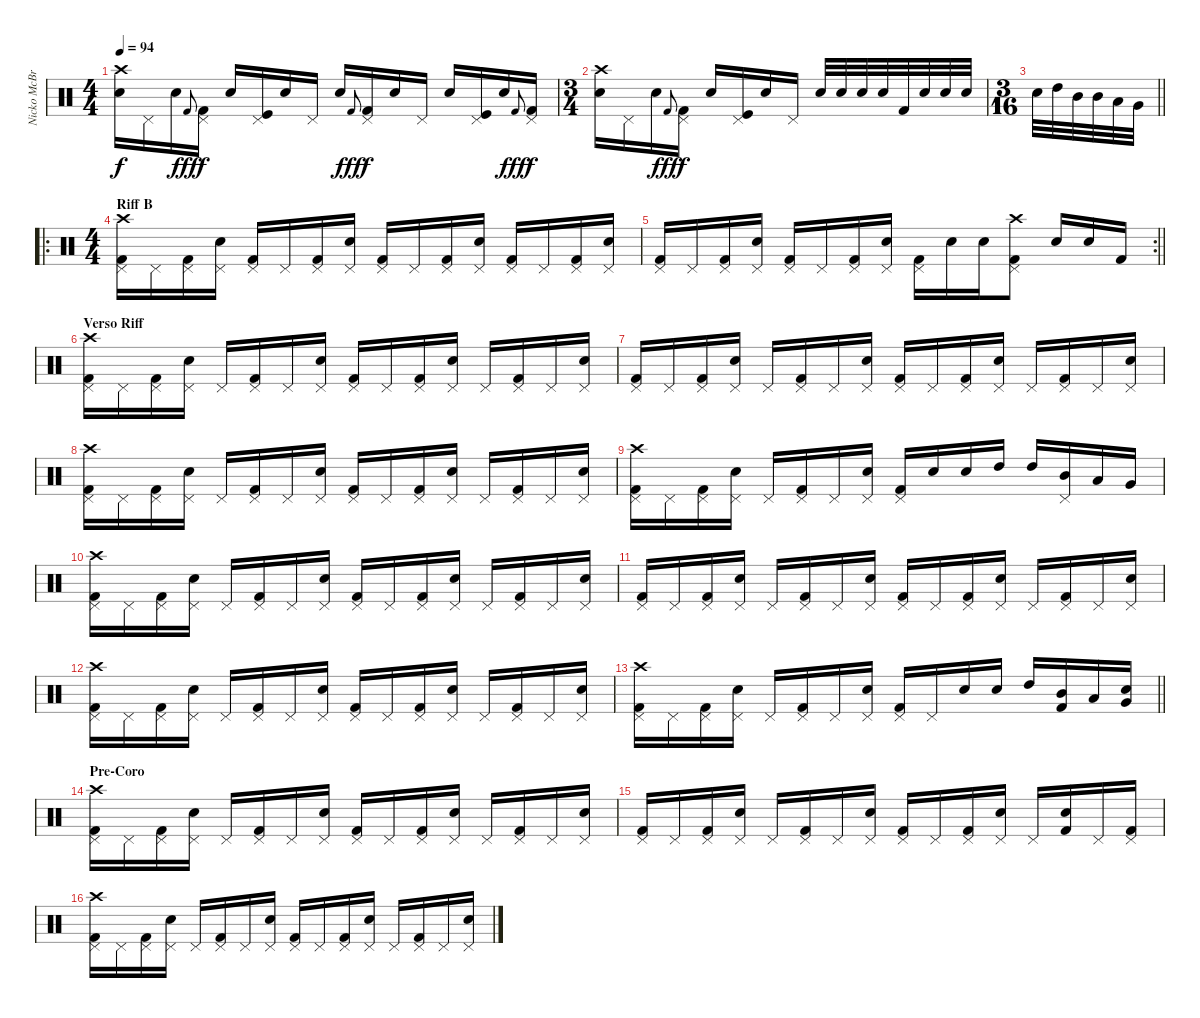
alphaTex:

\track ("Nicko McBrain" "Nicko McBr") {instrument percussion}
\staff {score}
\articulation defaults
\ts (4 4)
\tempo 94
\clef neutral
\ks c
("Snare (hit) 2" "Crash high (hit)").16{dy f} "Pedal Hi-Hat (hit)".16 "Snare (hit) 2".16 "Kick (hit) 2".8{gr onbeat dy fff} ("Pedal Hi-Hat (hit)" "Kick (hit) 2").16{dy f} "Snare (hit) 2".16 ("Kick (hit)" "Pedal Hi-Hat (hit)").16 "Snare (hit) 2".16 "Pedal Hi-Hat (hit)".16 "Snare (hit) 2".16 "Kick (hit) 2".8{gr onbeat dy fff} ("Pedal Hi-Hat (hit)" "Kick (hit) 2").16{dy f} "Snare (hit) 2".16 "Pedal Hi-Hat (hit)".16 "Snare (hit) 2".16 ("Kick (hit)" "Pedal Hi-Hat (hit)").16 "Snare (hit) 2".16 "Kick (hit) 2".8{gr onbeat dy fff} ("Pedal Hi-Hat (hit)" "Kick (hit) 2").16{dy f} |
\ts (3 4)
("Snare (hit) 2" "Crash high (hit)").16 "Pedal Hi-Hat (hit)".16 "Snare (hit) 2".16 "Kick (hit) 2".8{gr onbeat dy fff} ("Pedal Hi-Hat (hit)" "Kick (hit) 2").16{dy f} "Snare (hit) 2".16 ("Kick (hit)" "Pedal Hi-Hat (hit)").16 "Snare (hit) 2".16 "Pedal Hi-Hat (hit)".16 "Snare (hit) 2".32 "Snare (hit) 2".32 "Snare (hit) 2".32 "Snare (hit) 2".32 "Kick (hit) 2".32 "Snare (hit) 2".32 "Snare (hit) 2".32 "Snare (hit) 2".32 |
\ts (3 16)
\barLineRight lightlight "Snare (hit) 2".32 "High Tom (hit)".32 "Mid Tom (hit)".32 "Mid Tom (hit)".32 "Low Tom (hit)".32 "Very Low Tom (hit)".32
|
\ro
\ts (4 4)
\section ("" "Riff B")
("Kick (hit) 2" "Pedal Hi-Hat (hit)" "Crash high (hit)").16 "Pedal Hi-Hat (hit)".16 ("Kick (hit) 2" "Pedal Hi-Hat (hit)").16 ("Snare (hit) 2" "Pedal Hi-Hat (hit)").16 ("Kick (hit) 2" "Pedal Hi-Hat (hit)").16 "Pedal Hi-Hat (hit)".16 ("Kick (hit) 2" "Pedal Hi-Hat (hit)").16 ("Snare (hit) 2" "Pedal Hi-Hat (hit)").16 ("Kick (hit) 2" "Pedal Hi-Hat (hit)").16 "Pedal Hi-Hat (hit)".16 ("Kick (hit) 2" "Pedal Hi-Hat (hit)").16 ("Snare (hit) 2" "Pedal Hi-Hat (hit)").16 ("Kick (hit) 2" "Pedal Hi-Hat (hit)").16 "Pedal Hi-Hat (hit)".16 ("Kick (hit) 2" "Pedal Hi-Hat (hit)").16 ("Snare (hit) 2" "Pedal Hi-Hat (hit)").16 |
\rc 2
\barLineRight lightlight
("Kick (hit) 2" "Pedal Hi-Hat (hit)").16 "Pedal Hi-Hat (hit)".16 ("Kick (hit) 2" "Pedal Hi-Hat (hit)").16 ("Snare (hit) 2" "Pedal Hi-Hat (hit)").16 ("Kick (hit) 2" "Pedal Hi-Hat (hit)").16 "Pedal Hi-Hat (hit)".16 ("Kick (hit) 2" "Pedal Hi-Hat (hit)").16 ("Snare (hit) 2" "Pedal Hi-Hat (hit)").16 ("Kick (hit) 2" "Pedal Hi-Hat (hit)").16 "Snare (hit) 2".16 "Snare (hit) 2".16 ("Kick (hit) 2" "Pedal Hi-Hat (hit)" "Crash high (hit)").8 "Snare (hit) 2".16 "Snare (hit) 2".16 "Kick (hit) 2".16 |
\section ("" "Verso Riff")
("Kick (hit) 2" "Pedal Hi-Hat (hit)" "Crash high (hit)").16 "Pedal Hi-Hat (hit)".16 ("Kick (hit) 2" "Pedal Hi-Hat (hit)").16 ("Snare (hit) 2" "Pedal Hi-Hat (hit)").16 "Pedal Hi-Hat (hit)".16 ("Kick (hit) 2" "Pedal Hi-Hat (hit)").16 "Pedal Hi-Hat (hit)".16 ("Snare (hit) 2" "Pedal Hi-Hat (hit)").16 ("Kick (hit) 2" "Pedal Hi-Hat (hit)").16 "Pedal Hi-Hat (hit)".16 ("Kick (hit) 2" "Pedal Hi-Hat (hit)").16 ("Snare (hit) 2" "Pedal Hi-Hat (hit)").16 "Pedal Hi-Hat (hit)".16 ("Kick (hit) 2" "Pedal Hi-Hat (hit)").16 "Pedal Hi-Hat (hit)".16 ("Snare (hit) 2" "Pedal Hi-Hat (hit)").16 |
("Kick (hit) 2" "Pedal Hi-Hat (hit)").16 "Pedal Hi-Hat (hit)".16 ("Kick (hit) 2" "Pedal Hi-Hat (hit)").16 ("Snare (hit) 2" "Pedal Hi-Hat (hit)").16 "Pedal Hi-Hat (hit)".16 ("Kick (hit) 2" "Pedal Hi-Hat (hit)").16 "Pedal Hi-Hat (hit)".16 ("Snare (hit) 2" "Pedal Hi-Hat (hit)").16 ("Kick (hit) 2" "Pedal Hi-Hat (hit)").16 "Pedal Hi-Hat (hit)".16 ("Kick (hit) 2" "Pedal Hi-Hat (hit)").16 ("Snare (hit) 2" "Pedal Hi-Hat (hit)").16 "Pedal Hi-Hat (hit)".16 ("Kick (hit) 2" "Pedal Hi-Hat (hit)").16 "Pedal Hi-Hat (hit)".16 ("Snare (hit) 2" "Pedal Hi-Hat (hit)").16 |
("Kick (hit) 2" "Pedal Hi-Hat (hit)" "Crash high (hit)").16 "Pedal Hi-Hat (hit)".16 ("Kick (hit) 2" "Pedal Hi-Hat (hit)").16 ("Snare (hit) 2" "Pedal Hi-Hat (hit)").16 "Pedal Hi-Hat (hit)".16 ("Kick (hit) 2" "Pedal Hi-Hat (hit)").16 "Pedal Hi-Hat (hit)".16 ("Snare (hit) 2" "Pedal Hi-Hat (hit)").16 ("Kick (hit) 2" "Pedal Hi-Hat (hit)").16 "Pedal Hi-Hat (hit)".16 ("Kick (hit) 2" "Pedal Hi-Hat (hit)").16 ("Snare (hit) 2" "Pedal Hi-Hat (hit)").16 "Pedal Hi-Hat (hit)".16 ("Kick (hit) 2" "Pedal Hi-Hat (hit)").16 "Pedal Hi-Hat (hit)".16 ("Snare (hit) 2" "Pedal Hi-Hat (hit)").16 |
("Kick (hit) 2" "Pedal Hi-Hat (hit)" "Crash high (hit)").16 "Pedal Hi-Hat (hit)".16 ("Kick (hit) 2" "Pedal Hi-Hat (hit)").16 ("Snare (hit) 2" "Pedal Hi-Hat (hit)").16 "Pedal Hi-Hat (hit)".16 ("Kick (hit) 2" "Pedal Hi-Hat (hit)").16 "Pedal Hi-Hat (hit)".16 ("Snare (hit) 2" "Pedal Hi-Hat (hit)").16 ("Kick (hit) 2" "Pedal Hi-Hat (hit)").16 "Snare (hit) 2".16 "Snare (hit) 2".16 "High Tom (hit)".16 "High Tom (hit)".16 ("Pedal Hi-Hat (hit)" "Mid Tom (hit)").16 "Low Tom (hit)".16 "Very Low Tom (hit)".16 |
("Kick (hit) 2" "Pedal Hi-Hat (hit)" "Crash high (hit)").16 "Pedal Hi-Hat (hit)".16 ("Kick (hit) 2" "Pedal Hi-Hat (hit)").16 ("Snare (hit) 2" "Pedal Hi-Hat (hit)").16 "Pedal Hi-Hat (hit)".16 ("Kick (hit) 2" "Pedal Hi-Hat (hit)").16 "Pedal Hi-Hat (hit)".16 ("Snare (hit) 2" "Pedal Hi-Hat (hit)").16 ("Kick (hit) 2" "Pedal Hi-Hat (hit)").16 "Pedal Hi-Hat (hit)".16 ("Kick (hit) 2" "Pedal Hi-Hat (hit)").16 ("Snare (hit) 2" "Pedal Hi-Hat (hit)").16 "Pedal Hi-Hat (hit)".16 ("Kick (hit) 2" "Pedal Hi-Hat (hit)").16 "Pedal Hi-Hat (hit)".16 ("Snare (hit) 2" "Pedal Hi-Hat (hit)").16 |
("Kick (hit) 2" "Pedal Hi-Hat (hit)").16 "Pedal Hi-Hat (hit)".16 ("Kick (hit) 2" "Pedal Hi-Hat (hit)").16 ("Snare (hit) 2" "Pedal Hi-Hat (hit)").16 "Pedal Hi-Hat (hit)".16 ("Kick (hit) 2" "Pedal Hi-Hat (hit)").16 "Pedal Hi-Hat (hit)".16 ("Snare (hit) 2" "Pedal Hi-Hat (hit)").16 ("Kick (hit) 2" "Pedal Hi-Hat (hit)").16 "Pedal Hi-Hat (hit)".16 ("Kick (hit) 2" "Pedal Hi-Hat (hit)").16 ("Snare (hit) 2" "Pedal Hi-Hat (hit)").16 "Pedal Hi-Hat (hit)".16 ("Kick (hit) 2" "Pedal Hi-Hat (hit)").16 "Pedal Hi-Hat (hit)".16 ("Snare (hit) 2" "Pedal Hi-Hat (hit)").16 |
("Kick (hit) 2" "Pedal Hi-Hat (hit)" "Crash high (hit)").16 "Pedal Hi-Hat (hit)".16 ("Kick (hit) 2" "Pedal Hi-Hat (hit)").16 ("Snare (hit) 2" "Pedal Hi-Hat (hit)").16 "Pedal Hi-Hat (hit)".16 ("Kick (hit) 2" "Pedal Hi-Hat (hit)").16 "Pedal Hi-Hat (hit)".16 ("Snare (hit) 2" "Pedal Hi-Hat (hit)").16 ("Kick (hit) 2" "Pedal Hi-Hat (hit)").16 "Pedal Hi-Hat (hit)".16 ("Kick (hit) 2" "Pedal Hi-Hat (hit)").16 ("Snare (hit) 2" "Pedal Hi-Hat (hit)").16 "Pedal Hi-Hat (hit)".16 ("Kick (hit) 2" "Pedal Hi-Hat (hit)").16 "Pedal Hi-Hat (hit)".16 ("Snare (hit) 2" "Pedal Hi-Hat (hit)").16 |
\barLineRight lightlight
("Kick (hit) 2" "Pedal Hi-Hat (hit)" "Crash high (hit)").16 "Pedal Hi-Hat (hit)".16 ("Kick (hit) 2" "Pedal Hi-Hat (hit)").16 ("Snare (hit) 2" "Pedal Hi-Hat (hit)").16 "Pedal Hi-Hat (hit)".16 ("Kick (hit) 2" "Pedal Hi-Hat (hit)").16 "Pedal Hi-Hat (hit)".16 ("Snare (hit) 2" "Pedal Hi-Hat (hit)").16 ("Kick (hit) 2" "Pedal Hi-Hat (hit)").16 "Pedal Hi-Hat (hit)".16 "Snare (hit) 2".16 "Snare (hit) 2".16 "High Tom (hit)".16 ("Kick (hit) 2" "Mid Tom (hit)").16 "Low Tom (hit)".16 ("Snare (hit) 2" "Very Low Tom (hit)").16 |
\section ("" "Pre-Coro")
("Kick (hit) 2" "Pedal Hi-Hat (hit)" "Crash high (hit)").16 "Pedal Hi-Hat (hit)".16 ("Kick (hit) 2" "Pedal Hi-Hat (hit)").16 ("Snare (hit) 2" "Pedal Hi-Hat (hit)").16 "Pedal Hi-Hat (hit)".16 ("Kick (hit) 2" "Pedal Hi-Hat (hit)").16 "Pedal Hi-Hat (hit)".16 ("Snare (hit) 2" "Pedal Hi-Hat (hit)").16 ("Kick (hit) 2" "Pedal Hi-Hat (hit)").16 "Pedal Hi-Hat (hit)".16 ("Kick (hit) 2" "Pedal Hi-Hat (hit)").16 ("Snare (hit) 2" "Pedal Hi-Hat (hit)").16 "Pedal Hi-Hat (hit)".16 ("Kick (hit) 2" "Pedal Hi-Hat (hit)").16 "Pedal Hi-Hat (hit)".16 ("Snare (hit) 2" "Pedal Hi-Hat (hit)").16 |
("Kick (hit) 2" "Pedal Hi-Hat (hit)").16 "Pedal Hi-Hat (hit)".16 ("Kick (hit) 2" "Pedal Hi-Hat (hit)").16 ("Snare (hit) 2" "Pedal Hi-Hat (hit)").16 "Pedal Hi-Hat (hit)".16 ("Kick (hit) 2" "Pedal Hi-Hat (hit)").16 "Pedal Hi-Hat (hit)".16 ("Snare (hit) 2" "Pedal Hi-Hat (hit)").16 ("Kick (hit) 2" "Pedal Hi-Hat (hit)").16 "Pedal Hi-Hat (hit)".16 ("Kick (hit) 2" "Pedal Hi-Hat (hit)").16 ("Snare (hit) 2" "Pedal Hi-Hat (hit)").16 "Pedal Hi-Hat (hit)".16 ("Kick (hit) 2" "Snare (hit) 2").16 "Pedal Hi-Hat (hit)".16 ("Kick (hit) 2" "Pedal Hi-Hat (hit)").16 |
("Kick (hit) 2" "Pedal Hi-Hat (hit)" "Crash high (hit)").16 "Pedal Hi-Hat (hit)".16 ("Kick (hit) 2" "Pedal Hi-Hat (hit)").16 ("Snare (hit) 2" "Pedal Hi-Hat (hit)").16 "Pedal Hi-Hat (hit)".16 ("Kick (hit) 2" "Pedal Hi-Hat (hit)").16 "Pedal Hi-Hat (hit)".16 ("Snare (hit) 2" "Pedal Hi-Hat (hit)").16 ("Kick (hit) 2" "Pedal Hi-Hat (hit)").16 "Pedal Hi-Hat (hit)".16 ("Kick (hit) 2" "Pedal Hi-Hat (hit)").16 ("Snare (hit) 2" "Pedal Hi-Hat (hit)").16 "Pedal Hi-Hat (hit)".16 ("Kick (hit) 2" "Pedal Hi-Hat (hit)").16 "Pedal Hi-Hat (hit)".16 ("Snare (hit) 2" "Pedal Hi-Hat (hit)").16
